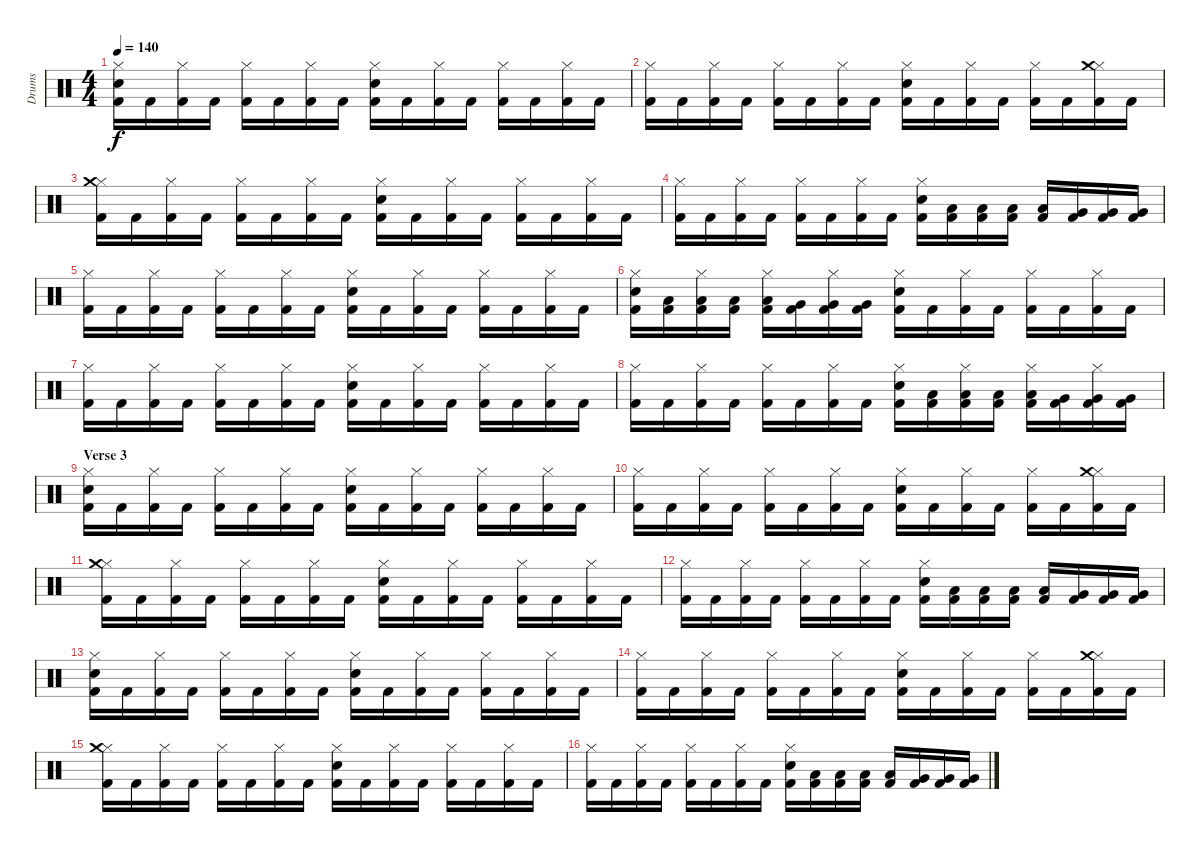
\track ("Drums" "Drums") {instrument percussion}
\staff {score}
\articulation defaults
\ts (4 4)
\tempo 140
\clef neutral
\ks c
("Hi-Hat (closed)" "Snare (hit) 2" "Kick (hit) 2").16{dy f} "Kick (hit) 2".16 ("Hi-Hat (closed)" "Kick (hit) 2").16 "Kick (hit) 2".16 ("Hi-Hat (closed)" "Kick (hit) 2").16 "Kick (hit) 2".16 ("Hi-Hat (closed)" "Kick (hit) 2").16 "Kick (hit) 2".16 ("Hi-Hat (closed)" "Snare (hit) 2" "Kick (hit) 2").16 "Kick (hit) 2".16 ("Hi-Hat (closed)" "Kick (hit) 2").16 "Kick (hit) 2".16 ("Hi-Hat (closed)" "Kick (hit) 2").16 "Kick (hit) 2".16 ("Hi-Hat (closed)" "Kick (hit) 2").16 "Kick (hit) 2".16 |
("Hi-Hat (closed)" "Kick (hit) 2").16 "Kick (hit) 2".16 ("Hi-Hat (closed)" "Kick (hit) 2").16 "Kick (hit) 2".16 ("Hi-Hat (closed)" "Kick (hit) 2").16 "Kick (hit) 2".16 ("Hi-Hat (closed)" "Kick (hit) 2").16 "Kick (hit) 2".16 ("Hi-Hat (closed)" "Snare (hit) 2" "Kick (hit) 2").16 "Kick (hit) 2".16 ("Hi-Hat (closed)" "Kick (hit) 2").16 "Kick (hit) 2".16 ("Hi-Hat (closed)" "Kick (hit) 2").16 "Kick (hit) 2".16 ("Hi-Hat (closed)" "Crash medium (hit)" "Kick (hit) 2").16 "Kick (hit) 2".16 |
("Hi-Hat (closed)" "Crash medium (hit)" "Kick (hit) 2").16 "Kick (hit) 2".16 ("Hi-Hat (closed)" "Kick (hit) 2").16 "Kick (hit) 2".16 ("Hi-Hat (closed)" "Kick (hit) 2").16 "Kick (hit) 2".16 ("Hi-Hat (closed)" "Kick (hit) 2").16 "Kick (hit) 2".16 ("Hi-Hat (closed)" "Snare (hit) 2" "Kick (hit) 2").16 "Kick (hit) 2".16 ("Hi-Hat (closed)" "Kick (hit) 2").16 "Kick (hit) 2".16 ("Hi-Hat (closed)" "Kick (hit) 2").16 "Kick (hit) 2".16 ("Hi-Hat (closed)" "Kick (hit) 2").16 "Kick (hit) 2".16 |
("Hi-Hat (closed)" "Kick (hit) 2").16 "Kick (hit) 2".16 ("Hi-Hat (closed)" "Kick (hit) 2").16 "Kick (hit) 2".16 ("Hi-Hat (closed)" "Kick (hit) 2").16 "Kick (hit) 2".16 ("Hi-Hat (closed)" "Kick (hit) 2").16 "Kick (hit) 2".16 ("Hi-Hat (closed)" "Snare (hit) 2" "Kick (hit) 2").16 ("Low Floor Tom (hit)" "Kick (hit) 2").16 ("Low Floor Tom (hit)" "Kick (hit) 2").16 ("Low Floor Tom (hit)" "Kick (hit) 2").16 ("Low Floor Tom (hit)" "Kick (hit) 2").16 ("Very Low Tom (hit)" "Kick (hit) 2").16 ("Very Low Tom (hit)" "Kick (hit) 2").16 ("Very Low Tom (hit)" "Kick (hit) 2").16 |
("Hi-Hat (closed)" "Kick (hit) 2").16 "Kick (hit) 2".16 ("Hi-Hat (closed)" "Kick (hit) 2").16 "Kick (hit) 2".16 ("Hi-Hat (closed)" "Kick (hit) 2").16 "Kick (hit) 2".16 ("Hi-Hat (closed)" "Kick (hit) 2").16 "Kick (hit) 2".16 ("Hi-Hat (closed)" "Snare (hit) 2" "Kick (hit) 2").16 "Kick (hit) 2".16 ("Hi-Hat (closed)" "Kick (hit) 2").16 "Kick (hit) 2".16 ("Hi-Hat (closed)" "Kick (hit) 2").16 "Kick (hit) 2".16 ("Hi-Hat (closed)" "Kick (hit) 2").16 "Kick (hit) 2".16 |
("Hi-Hat (closed)" "Snare (hit) 2" "Kick (hit) 2").16 ("Low Floor Tom (hit)" "Kick (hit) 2").16 ("Hi-Hat (closed)" "Low Floor Tom (hit)" "Kick (hit) 2").16 ("Low Floor Tom (hit)" "Kick (hit) 2").16 ("Hi-Hat (closed)" "Low Floor Tom (hit)" "Kick (hit) 2").16 ("Very Low Tom (hit)" "Kick (hit) 2").16 ("Hi-Hat (closed)" "Very Low Tom (hit)" "Kick (hit) 2").16 ("Very Low Tom (hit)" "Kick (hit) 2").16 ("Hi-Hat (closed)" "Snare (hit) 2" "Kick (hit) 2").16 "Kick (hit) 2".16 ("Hi-Hat (closed)" "Kick (hit) 2").16 "Kick (hit) 2".16 ("Hi-Hat (closed)" "Kick (hit) 2").16 "Kick (hit) 2".16 ("Hi-Hat (closed)" "Kick (hit) 2").16 "Kick (hit) 2".16 |
("Hi-Hat (closed)" "Kick (hit) 2").16 "Kick (hit) 2".16 ("Hi-Hat (closed)" "Kick (hit) 2").16 "Kick (hit) 2".16 ("Hi-Hat (closed)" "Kick (hit) 2").16 "Kick (hit) 2".16 ("Hi-Hat (closed)" "Kick (hit) 2").16 "Kick (hit) 2".16 ("Hi-Hat (closed)" "Snare (hit) 2" "Kick (hit) 2").16 "Kick (hit) 2".16 ("Hi-Hat (closed)" "Kick (hit) 2").16 "Kick (hit) 2".16 ("Hi-Hat (closed)" "Kick (hit) 2").16 "Kick (hit) 2".16 ("Hi-Hat (closed)" "Kick (hit) 2").16 "Kick (hit) 2".16 |
\section ("" "")
("Hi-Hat (closed)" "Kick (hit) 2").16 "Kick (hit) 2".16 ("Hi-Hat (closed)" "Kick (hit) 2").16 "Kick (hit) 2".16 ("Hi-Hat (closed)" "Kick (hit) 2").16 "Kick (hit) 2".16 ("Hi-Hat (closed)" "Kick (hit) 2").16 "Kick (hit) 2".16 ("Hi-Hat (closed)" "Snare (hit) 2" "Kick (hit) 2").16 ("Low Floor Tom (hit)" "Kick (hit) 2").16 ("Hi-Hat (closed)" "Low Floor Tom (hit)" "Kick (hit) 2").16 ("Low Floor Tom (hit)" "Kick (hit) 2").16 ("Hi-Hat (closed)" "Low Floor Tom (hit)" "Kick (hit) 2").16 ("Very Low Tom (hit)" "Kick (hit) 2").16 ("Hi-Hat (closed)" "Very Low Tom (hit)" "Kick (hit) 2").16 ("Very Low Tom (hit)" "Kick (hit) 2").16 |
\section ("" "Verse 3")
("Hi-Hat (closed)" "Snare (hit) 2" "Kick (hit) 2").16 "Kick (hit) 2".16 ("Hi-Hat (closed)" "Kick (hit) 2").16 "Kick (hit) 2".16 ("Hi-Hat (closed)" "Kick (hit) 2").16 "Kick (hit) 2".16 ("Hi-Hat (closed)" "Kick (hit) 2").16 "Kick (hit) 2".16 ("Hi-Hat (closed)" "Snare (hit) 2" "Kick (hit) 2").16 "Kick (hit) 2".16 ("Hi-Hat (closed)" "Kick (hit) 2").16 "Kick (hit) 2".16 ("Hi-Hat (closed)" "Kick (hit) 2").16 "Kick (hit) 2".16 ("Hi-Hat (closed)" "Kick (hit) 2").16 "Kick (hit) 2".16 |
("Hi-Hat (closed)" "Kick (hit) 2").16 "Kick (hit) 2".16 ("Hi-Hat (closed)" "Kick (hit) 2").16 "Kick (hit) 2".16 ("Hi-Hat (closed)" "Kick (hit) 2").16 "Kick (hit) 2".16 ("Hi-Hat (closed)" "Kick (hit) 2").16 "Kick (hit) 2".16 ("Hi-Hat (closed)" "Snare (hit) 2" "Kick (hit) 2").16 "Kick (hit) 2".16 ("Hi-Hat (closed)" "Kick (hit) 2").16 "Kick (hit) 2".16 ("Hi-Hat (closed)" "Kick (hit) 2").16 "Kick (hit) 2".16 ("Hi-Hat (closed)" "Crash medium (hit)" "Kick (hit) 2").16 "Kick (hit) 2".16 |
("Hi-Hat (closed)" "Crash medium (hit)" "Kick (hit) 2").16 "Kick (hit) 2".16 ("Hi-Hat (closed)" "Kick (hit) 2").16 "Kick (hit) 2".16 ("Hi-Hat (closed)" "Kick (hit) 2").16 "Kick (hit) 2".16 ("Hi-Hat (closed)" "Kick (hit) 2").16 "Kick (hit) 2".16 ("Hi-Hat (closed)" "Snare (hit) 2" "Kick (hit) 2").16 "Kick (hit) 2".16 ("Hi-Hat (closed)" "Kick (hit) 2").16 "Kick (hit) 2".16 ("Hi-Hat (closed)" "Kick (hit) 2").16 "Kick (hit) 2".16 ("Hi-Hat (closed)" "Kick (hit) 2").16 "Kick (hit) 2".16 |
("Hi-Hat (closed)" "Kick (hit) 2").16 "Kick (hit) 2".16 ("Hi-Hat (closed)" "Kick (hit) 2").16 "Kick (hit) 2".16 ("Hi-Hat (closed)" "Kick (hit) 2").16 "Kick (hit) 2".16 ("Hi-Hat (closed)" "Kick (hit) 2").16 "Kick (hit) 2".16 ("Hi-Hat (closed)" "Snare (hit) 2" "Kick (hit) 2").16 ("Low Floor Tom (hit)" "Kick (hit) 2").16 ("Low Floor Tom (hit)" "Kick (hit) 2").16 ("Low Floor Tom (hit)" "Kick (hit) 2").16 ("Low Floor Tom (hit)" "Kick (hit) 2").16 ("Very Low Tom (hit)" "Kick (hit) 2").16 ("Very Low Tom (hit)" "Kick (hit) 2").16 ("Very Low Tom (hit)" "Kick (hit) 2").16 |
("Hi-Hat (closed)" "Snare (hit) 2" "Kick (hit) 2").16 "Kick (hit) 2".16 ("Hi-Hat (closed)" "Kick (hit) 2").16 "Kick (hit) 2".16 ("Hi-Hat (closed)" "Kick (hit) 2").16 "Kick (hit) 2".16 ("Hi-Hat (closed)" "Kick (hit) 2").16 "Kick (hit) 2".16 ("Hi-Hat (closed)" "Snare (hit) 2" "Kick (hit) 2").16 "Kick (hit) 2".16 ("Hi-Hat (closed)" "Kick (hit) 2").16 "Kick (hit) 2".16 ("Hi-Hat (closed)" "Kick (hit) 2").16 "Kick (hit) 2".16 ("Hi-Hat (closed)" "Kick (hit) 2").16 "Kick (hit) 2".16 |
("Hi-Hat (closed)" "Kick (hit) 2").16 "Kick (hit) 2".16 ("Hi-Hat (closed)" "Kick (hit) 2").16 "Kick (hit) 2".16 ("Hi-Hat (closed)" "Kick (hit) 2").16 "Kick (hit) 2".16 ("Hi-Hat (closed)" "Kick (hit) 2").16 "Kick (hit) 2".16 ("Hi-Hat (closed)" "Snare (hit) 2" "Kick (hit) 2").16 "Kick (hit) 2".16 ("Hi-Hat (closed)" "Kick (hit) 2").16 "Kick (hit) 2".16 ("Hi-Hat (closed)" "Kick (hit) 2").16 "Kick (hit) 2".16 ("Hi-Hat (closed)" "Crash medium (hit)" "Kick (hit) 2").16 "Kick (hit) 2".16 |
("Hi-Hat (closed)" "Crash medium (hit)" "Kick (hit) 2").16 "Kick (hit) 2".16 ("Hi-Hat (closed)" "Kick (hit) 2").16 "Kick (hit) 2".16 ("Hi-Hat (closed)" "Kick (hit) 2").16 "Kick (hit) 2".16 ("Hi-Hat (closed)" "Kick (hit) 2").16 "Kick (hit) 2".16 ("Hi-Hat (closed)" "Snare (hit) 2" "Kick (hit) 2").16 "Kick (hit) 2".16 ("Hi-Hat (closed)" "Kick (hit) 2").16 "Kick (hit) 2".16 ("Hi-Hat (closed)" "Kick (hit) 2").16 "Kick (hit) 2".16 ("Hi-Hat (closed)" "Kick (hit) 2").16 "Kick (hit) 2".16 |
("Hi-Hat (closed)" "Kick (hit) 2").16 "Kick (hit) 2".16 ("Hi-Hat (closed)" "Kick (hit) 2").16 "Kick (hit) 2".16 ("Hi-Hat (closed)" "Kick (hit) 2").16 "Kick (hit) 2".16 ("Hi-Hat (closed)" "Kick (hit) 2").16 "Kick (hit) 2".16 ("Hi-Hat (closed)" "Snare (hit) 2" "Kick (hit) 2").16 ("Low Floor Tom (hit)" "Kick (hit) 2").16 ("Low Floor Tom (hit)" "Kick (hit) 2").16 ("Low Floor Tom (hit)" "Kick (hit) 2").16 ("Low Floor Tom (hit)" "Kick (hit) 2").16 ("Very Low Tom (hit)" "Kick (hit) 2").16 ("Very Low Tom (hit)" "Kick (hit) 2").16 ("Very Low Tom (hit)" "Kick (hit) 2").16
